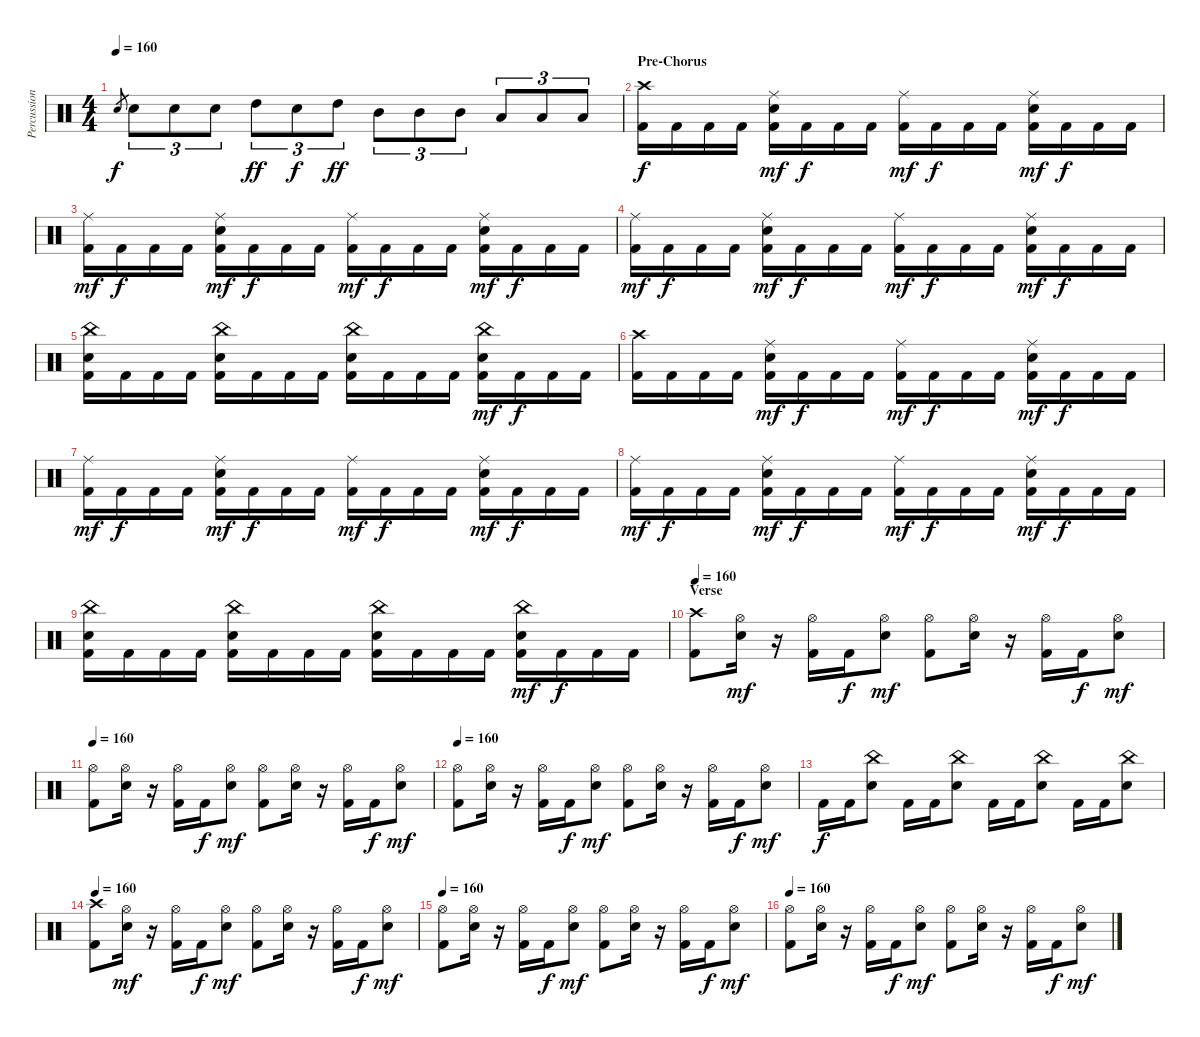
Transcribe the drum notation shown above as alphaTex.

\track ("Percussion" "Percussion") {instrument percussion}
\staff {score}
\articulation defaults
\ts (4 4)
\tempo 160
\clef neutral
\ks c "Electric Snare (hit)".8{gr dy f} "Electric Snare (hit)".8{tu (3 2)} "Electric Snare (hit)".8{tu (3 2)} "Electric Snare (hit)".8{tu (3 2)} "High Tom (hit)".8{tu (3 2) dy ff} "Electric Snare (hit)".8{tu (3 2) dy f} "High Tom (hit)".8{tu (3 2) dy ff} "Mid Tom (hit)".8{tu (3 2)} "Mid Tom (hit)".8{tu (3 2)} "Mid Tom (hit)".8{tu (3 2)} "Low Tom (hit)".8{tu (3 2)} "Low Tom (hit)".8{tu (3 2)} "Low Tom (hit)".8{tu (3 2)}
|
\section ("" "Pre-Chorus")
("Crash high (hit)" "Kick (hit) 2").16{dy f} "Kick (hit) 2".16 "Kick (hit) 2".16 "Kick (hit) 2".16 ("Ride (middle)" "Electric Snare (hit)" "Kick (hit) 2").16{dy mf} "Kick (hit) 2".16{dy f} "Kick (hit) 2".16 "Kick (hit) 2".16 ("Ride (middle)" "Kick (hit) 2").16{dy mf} "Kick (hit) 2".16{dy f} "Kick (hit) 2".16 "Kick (hit) 2".16 ("Ride (middle)" "Electric Snare (hit)" "Kick (hit) 2").16{dy mf} "Kick (hit) 2".16{dy f} "Kick (hit) 2".16 "Kick (hit) 2".16 |
("Ride (middle)" "Kick (hit) 2").16{dy mf} "Kick (hit) 2".16{dy f} "Kick (hit) 2".16 "Kick (hit) 2".16 ("Ride (middle)" "Electric Snare (hit)" "Kick (hit) 2").16{dy mf} "Kick (hit) 2".16{dy f} "Kick (hit) 2".16 "Kick (hit) 2".16 ("Ride (middle)" "Kick (hit) 2").16{dy mf} "Kick (hit) 2".16{dy f} "Kick (hit) 2".16 "Kick (hit) 2".16 ("Ride (middle)" "Electric Snare (hit)" "Kick (hit) 2").16{dy mf} "Kick (hit) 2".16{dy f} "Kick (hit) 2".16 "Kick (hit) 2".16 |
("Ride (middle)" "Kick (hit) 2").16{dy mf} "Kick (hit) 2".16{dy f} "Kick (hit) 2".16 "Kick (hit) 2".16 ("Ride (middle)" "Electric Snare (hit)" "Kick (hit) 2").16{dy mf} "Kick (hit) 2".16{dy f} "Kick (hit) 2".16 "Kick (hit) 2".16 ("Ride (middle)" "Kick (hit) 2").16{dy mf} "Kick (hit) 2".16{dy f} "Kick (hit) 2".16 "Kick (hit) 2".16 ("Ride (middle)" "Electric Snare (hit)" "Kick (hit) 2").16{dy mf} "Kick (hit) 2".16{dy f} "Kick (hit) 2".16 "Kick (hit) 2".16 |
("China (hit)" "Electric Snare (hit)" "Kick (hit) 2").16 "Kick (hit) 2".16 "Kick (hit) 2".16 "Kick (hit) 2".16 ("China (hit)" "Electric Snare (hit)" "Kick (hit) 2").16 "Kick (hit) 2".16 "Kick (hit) 2".16 "Kick (hit) 2".16 ("China (hit)" "Electric Snare (hit)" "Kick (hit) 2").16 "Kick (hit) 2".16 "Kick (hit) 2".16 "Kick (hit) 2".16 ("China (hit)" "Electric Snare (hit)" "Kick (hit) 2").16{dy mf} "Kick (hit) 2".16{dy f} "Kick (hit) 2".16 "Kick (hit) 2".16 |
("Crash high (hit)" "Kick (hit) 2").16 "Kick (hit) 2".16 "Kick (hit) 2".16 "Kick (hit) 2".16 ("Ride (middle)" "Electric Snare (hit)" "Kick (hit) 2").16{dy mf} "Kick (hit) 2".16{dy f} "Kick (hit) 2".16 "Kick (hit) 2".16 ("Ride (middle)" "Kick (hit) 2").16{dy mf} "Kick (hit) 2".16{dy f} "Kick (hit) 2".16 "Kick (hit) 2".16 ("Ride (middle)" "Electric Snare (hit)" "Kick (hit) 2").16{dy mf} "Kick (hit) 2".16{dy f} "Kick (hit) 2".16 "Kick (hit) 2".16 |
("Ride (middle)" "Kick (hit) 2").16{dy mf} "Kick (hit) 2".16{dy f} "Kick (hit) 2".16 "Kick (hit) 2".16 ("Ride (middle)" "Electric Snare (hit)" "Kick (hit) 2").16{dy mf} "Kick (hit) 2".16{dy f} "Kick (hit) 2".16 "Kick (hit) 2".16 ("Ride (middle)" "Kick (hit) 2").16{dy mf} "Kick (hit) 2".16{dy f} "Kick (hit) 2".16 "Kick (hit) 2".16 ("Ride (middle)" "Electric Snare (hit)" "Kick (hit) 2").16{dy mf} "Kick (hit) 2".16{dy f} "Kick (hit) 2".16 "Kick (hit) 2".16 |
("Ride (middle)" "Kick (hit) 2").16{dy mf} "Kick (hit) 2".16{dy f} "Kick (hit) 2".16 "Kick (hit) 2".16 ("Ride (middle)" "Electric Snare (hit)" "Kick (hit) 2").16{dy mf} "Kick (hit) 2".16{dy f} "Kick (hit) 2".16 "Kick (hit) 2".16 ("Ride (middle)" "Kick (hit) 2").16{dy mf} "Kick (hit) 2".16{dy f} "Kick (hit) 2".16 "Kick (hit) 2".16 ("Ride (middle)" "Electric Snare (hit)" "Kick (hit) 2").16{dy mf} "Kick (hit) 2".16{dy f} "Kick (hit) 2".16 "Kick (hit) 2".16 |
("China (hit)" "Electric Snare (hit)" "Kick (hit) 2").16 "Kick (hit) 2".16 "Kick (hit) 2".16 "Kick (hit) 2".16 ("China (hit)" "Electric Snare (hit)" "Kick (hit) 2").16 "Kick (hit) 2".16 "Kick (hit) 2".16 "Kick (hit) 2".16 ("China (hit)" "Electric Snare (hit)" "Kick (hit) 2").16 "Kick (hit) 2".16 "Kick (hit) 2".16 "Kick (hit) 2".16 ("China (hit)" "Electric Snare (hit)" "Kick (hit) 2").16{dy mf} "Kick (hit) 2".16{dy f} "Kick (hit) 2".16 "Kick (hit) 2".16 |
\section ("" "Verse")
\tempo 160
("Crash high (hit)" "Kick (hit) 2").8 ("Hi-Hat (open)" "Electric Snare (hit)").16{dy mf} r.16 ("Hi-Hat (open)" "Kick (hit) 2").16 "Kick (hit) 2".16{dy f} ("Hi-Hat (open)" "Electric Snare (hit)").8{dy mf} ("Hi-Hat (open)" "Kick (hit) 2").8 ("Hi-Hat (open)" "Electric Snare (hit)").16 r.16 ("Hi-Hat (open)" "Kick (hit) 2").16 "Kick (hit) 2".16{dy f} ("Hi-Hat (open)" "Electric Snare (hit)").8{dy mf} |
\tempo 160
("Hi-Hat (open)" "Kick (hit) 2").8 ("Hi-Hat (open)" "Electric Snare (hit)").16 r.16 ("Hi-Hat (open)" "Kick (hit) 2").16 "Kick (hit) 2".16{dy f} ("Hi-Hat (open)" "Electric Snare (hit)").8{dy mf} ("Hi-Hat (open)" "Kick (hit) 2").8 ("Hi-Hat (open)" "Electric Snare (hit)").16 r.16 ("Hi-Hat (open)" "Kick (hit) 2").16 "Kick (hit) 2".16{dy f} ("Hi-Hat (open)" "Electric Snare (hit)").8{dy mf} |
\tempo 160
("Hi-Hat (open)" "Kick (hit) 2").8 ("Hi-Hat (open)" "Electric Snare (hit)").16 r.16 ("Hi-Hat (open)" "Kick (hit) 2").16 "Kick (hit) 2".16{dy f} ("Hi-Hat (open)" "Electric Snare (hit)").8{dy mf} ("Hi-Hat (open)" "Kick (hit) 2").8 ("Hi-Hat (open)" "Electric Snare (hit)").16 r.16 ("Hi-Hat (open)" "Kick (hit) 2").16 "Kick (hit) 2".16{dy f} ("Hi-Hat (open)" "Electric Snare (hit)").8{dy mf} |
"Kick (hit) 2".16{dy f} "Kick (hit) 2".16 ("China (hit)" "Electric Snare (hit)").8 "Kick (hit) 2".16 "Kick (hit) 2".16 ("China (hit)" "Electric Snare (hit)").8 "Kick (hit) 2".16 "Kick (hit) 2".16 ("China (hit)" "Electric Snare (hit)").8 "Kick (hit) 2".16 "Kick (hit) 2".16 ("China (hit)" "Electric Snare (hit)").8 |
\tempo 160
("Crash high (hit)" "Kick (hit) 2").8 ("Hi-Hat (open)" "Electric Snare (hit)").16{dy mf} r.16 ("Hi-Hat (open)" "Kick (hit) 2").16 "Kick (hit) 2".16{dy f} ("Hi-Hat (open)" "Electric Snare (hit)").8{dy mf} ("Hi-Hat (open)" "Kick (hit) 2").8 ("Hi-Hat (open)" "Electric Snare (hit)").16 r.16 ("Hi-Hat (open)" "Kick (hit) 2").16 "Kick (hit) 2".16{dy f} ("Hi-Hat (open)" "Electric Snare (hit)").8{dy mf} |
\tempo 160
("Hi-Hat (open)" "Kick (hit) 2").8 ("Hi-Hat (open)" "Electric Snare (hit)").16 r.16 ("Hi-Hat (open)" "Kick (hit) 2").16 "Kick (hit) 2".16{dy f} ("Hi-Hat (open)" "Electric Snare (hit)").8{dy mf} ("Hi-Hat (open)" "Kick (hit) 2").8 ("Hi-Hat (open)" "Electric Snare (hit)").16 r.16 ("Hi-Hat (open)" "Kick (hit) 2").16 "Kick (hit) 2".16{dy f} ("Hi-Hat (open)" "Electric Snare (hit)").8{dy mf} |
\tempo 160
("Hi-Hat (open)" "Kick (hit) 2").8 ("Hi-Hat (open)" "Electric Snare (hit)").16 r.16 ("Hi-Hat (open)" "Kick (hit) 2").16 "Kick (hit) 2".16{dy f} ("Hi-Hat (open)" "Electric Snare (hit)").8{dy mf} ("Hi-Hat (open)" "Kick (hit) 2").8 ("Hi-Hat (open)" "Electric Snare (hit)").16 r.16 ("Hi-Hat (open)" "Kick (hit) 2").16 "Kick (hit) 2".16{dy f} ("Hi-Hat (open)" "Electric Snare (hit)").8{dy mf}
